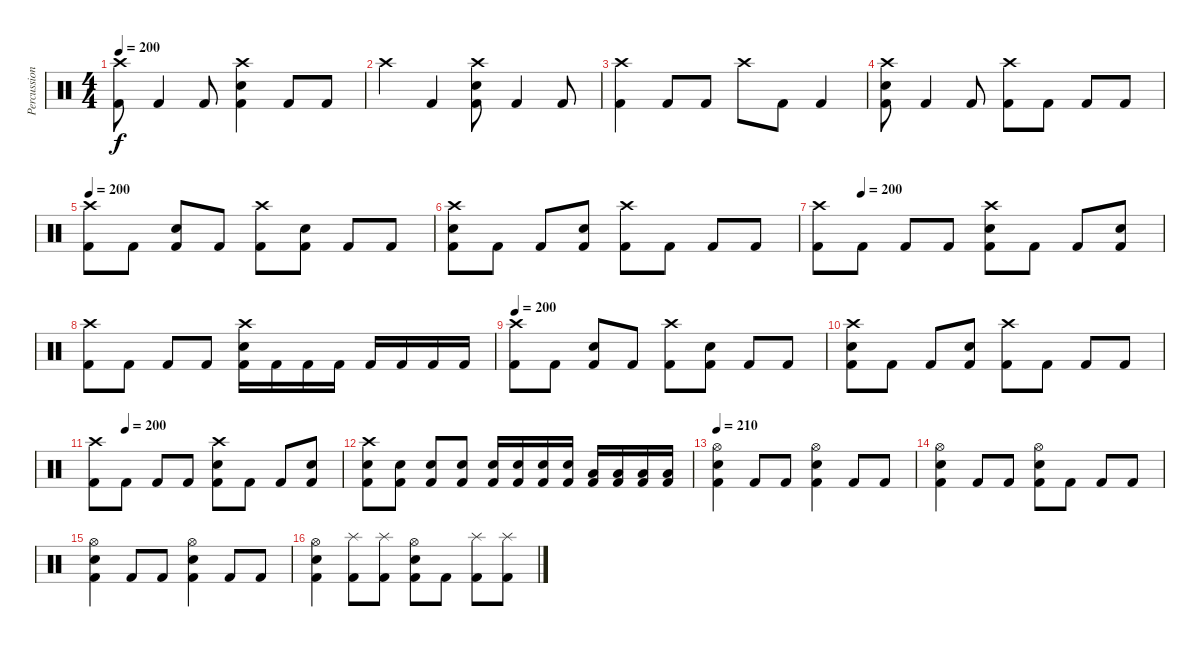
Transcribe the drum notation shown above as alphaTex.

\track ("Percussion" "Percussion") {instrument percussion}
\staff {score}
\articulation defaults
\ts (4 4)
\tempo 200
\clef neutral
\ks c
("Crash high (hit)" "Kick (hit) 2").8{dy f} "Kick (hit) 2".4 "Kick (hit) 2".8 ("Crash high (hit)" "Electric Snare (hit)" "Kick (hit) 2").4 "Kick (hit) 2".8 "Kick (hit) 2".8 |
"Crash high (hit)".4 "Kick (hit) 2".4 ("Crash high (hit)" "Electric Snare (hit)" "Kick (hit) 2").8 "Kick (hit) 2".4 "Kick (hit) 2".8 |
("Crash high (hit)" "Kick (hit) 2").4 "Kick (hit) 2".8 "Kick (hit) 2".8 "Crash high (hit)".8 "Kick (hit) 2".8 "Kick (hit) 2".4 |
("Crash high (hit)" "Electric Snare (hit)" "Kick (hit) 2").8 "Kick (hit) 2".4 "Kick (hit) 2".8 ("Crash high (hit)" "Kick (hit) 2").8 "Kick (hit) 2".8 "Kick (hit) 2".8 "Kick (hit) 2".8 |
\tempo 200
("Crash high (hit)" "Kick (hit) 2").8 "Kick (hit) 2".8 ("Electric Snare (hit)" "Kick (hit) 2").8 "Kick (hit) 2".8 ("Crash high (hit)" "Kick (hit) 2").8 ("Electric Snare (hit)" "Kick (hit) 2").8 "Kick (hit) 2".8 "Kick (hit) 2".8 |
("Crash high (hit)" "Electric Snare (hit)" "Kick (hit) 2").8 "Kick (hit) 2".8 "Kick (hit) 2".8 ("Electric Snare (hit)" "Kick (hit) 2").8 ("Crash high (hit)" "Kick (hit) 2").8 "Kick (hit) 2".8 "Kick (hit) 2".8 "Kick (hit) 2".8 |
\tempo (200 0.125)
("Crash high (hit)" "Kick (hit) 2").8 "Kick (hit) 2".8 "Kick (hit) 2".8 "Kick (hit) 2".8 ("Crash high (hit)" "Electric Snare (hit)" "Kick (hit) 2").8 "Kick (hit) 2".8 "Kick (hit) 2".8 ("Electric Snare (hit)" "Kick (hit) 2").8 |
("Crash high (hit)" "Kick (hit) 2").8 "Kick (hit) 2".8 "Kick (hit) 2".8 "Kick (hit) 2".8 ("Crash high (hit)" "Electric Snare (hit)" "Kick (hit) 2").16 "Kick (hit) 2".16 "Kick (hit) 2".16 "Kick (hit) 2".16 "Kick (hit) 2".16 "Kick (hit) 2".16 "Kick (hit) 2".16 "Kick (hit) 2".16 |
\tempo 200
("Crash high (hit)" "Kick (hit) 2").8 "Kick (hit) 2".8 ("Electric Snare (hit)" "Kick (hit) 2").8 "Kick (hit) 2".8 ("Crash high (hit)" "Kick (hit) 2").8 ("Electric Snare (hit)" "Kick (hit) 2").8 "Kick (hit) 2".8 "Kick (hit) 2".8 |
("Crash high (hit)" "Electric Snare (hit)" "Kick (hit) 2").8 "Kick (hit) 2".8 "Kick (hit) 2".8 ("Electric Snare (hit)" "Kick (hit) 2").8 ("Crash high (hit)" "Kick (hit) 2").8 "Kick (hit) 2".8 "Kick (hit) 2".8 "Kick (hit) 2".8 |
\tempo (200 0.125)
("Crash high (hit)" "Kick (hit) 2").8 "Kick (hit) 2".8 "Kick (hit) 2".8 "Kick (hit) 2".8 ("Crash high (hit)" "Electric Snare (hit)" "Kick (hit) 2").8 "Kick (hit) 2".8 "Kick (hit) 2".8 ("Electric Snare (hit)" "Kick (hit) 2").8 |
("Crash high (hit)" "Electric Snare (hit)" "Kick (hit) 2").8 ("Electric Snare (hit)" "Kick (hit) 2").8 ("Electric Snare (hit)" "Kick (hit) 2").8 ("Electric Snare (hit)" "Kick (hit) 2").8 ("Electric Snare (hit)" "Kick (hit) 2").16 ("Electric Snare (hit)" "Kick (hit) 2").16 ("Electric Snare (hit)" "Kick (hit) 2").16 ("Electric Snare (hit)" "Kick (hit) 2").16 ("Low Floor Tom (hit)" "Kick (hit) 2").16 ("Low Floor Tom (hit)" "Kick (hit) 2").16 ("Low Floor Tom (hit)" "Kick (hit) 2").16 ("Low Floor Tom (hit)" "Kick (hit) 2").16 |
\tempo 210
("Hi-Hat (open)" "Electric Snare (hit)" "Kick (hit) 2").4 "Kick (hit) 2".8 "Kick (hit) 2".8 ("Hi-Hat (open)" "Electric Snare (hit)" "Kick (hit) 2").4 "Kick (hit) 2".8 "Kick (hit) 2".8 |
("Hi-Hat (open)" "Electric Snare (hit)" "Kick (hit) 2").4 "Kick (hit) 2".8 "Kick (hit) 2".8 ("Hi-Hat (open)" "Electric Snare (hit)" "Kick (hit) 2").8 "Kick (hit) 2".8 "Kick (hit) 2".8 "Kick (hit) 2".8 |
("Hi-Hat (open)" "Electric Snare (hit)" "Kick (hit) 2").4 "Kick (hit) 2".8 "Kick (hit) 2".8 ("Hi-Hat (open)" "Electric Snare (hit)" "Kick (hit) 2").4 "Kick (hit) 2".8 "Kick (hit) 2".8 |
("Hi-Hat (open)" "Electric Snare (hit)" "Kick (hit) 2").4 ("Splash (hit)" "Kick (hit) 2").8 ("Splash (hit)" "Kick (hit) 2").8 ("Hi-Hat (open)" "Electric Snare (hit)" "Kick (hit) 2").8 "Kick (hit) 2".8 ("Splash (hit)" "Kick (hit) 2").8 ("Splash (hit)" "Kick (hit) 2").8
